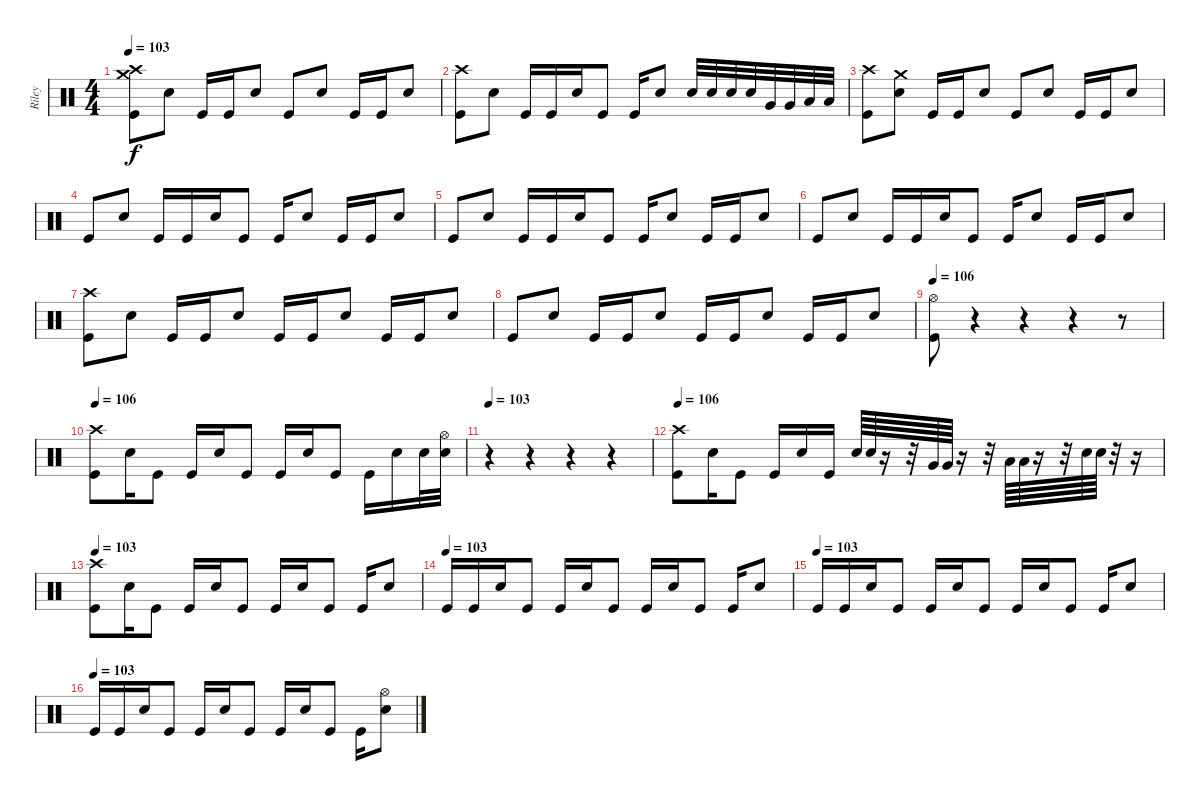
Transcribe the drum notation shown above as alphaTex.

\track ("Riley" "Riley") {instrument percussion}
\staff {score}
\articulation defaults
\ts (4 4)
\tempo 103
\clef neutral
\ks c
("Crash high (hit)" "Crash medium (hit)" "Kick (hit)").8{dy f} "Electric Snare (hit)".8 "Kick (hit)".16 "Kick (hit)".16 "Electric Snare (hit)".8 "Kick (hit)".8 "Electric Snare (hit)".8 "Kick (hit)".16 "Kick (hit)".16 "Electric Snare (hit)".8 |
("Crash high (hit)" "Kick (hit)").8 "Electric Snare (hit)".8 "Kick (hit)".16 "Kick (hit)".16 "Electric Snare (hit)".16 "Kick (hit)".8 "Kick (hit)".16 "Electric Snare (hit)".8 "Electric Snare (hit)".32 "Electric Snare (hit)".32 "Electric Snare (hit)".32 "Electric Snare (hit)".32 "Very Low Tom (hit)".32 "Very Low Tom (hit)".32 "Low Floor Tom (hit)".32 "Low Floor Tom (hit)".32 |
("Crash high (hit)" "Kick (hit)").8 ("Crash medium (hit)" "Electric Snare (hit)").8 "Kick (hit)".16 "Kick (hit)".16 "Electric Snare (hit)".8 "Kick (hit)".8 "Electric Snare (hit)".8 "Kick (hit)".16 "Kick (hit)".16 "Electric Snare (hit)".8 |
"Kick (hit)".8 "Electric Snare (hit)".8 "Kick (hit)".16 "Kick (hit)".16 "Electric Snare (hit)".16 "Kick (hit)".8 "Kick (hit)".16 "Electric Snare (hit)".8 "Kick (hit)".16 "Kick (hit)".16 "Electric Snare (hit)".8 |
"Kick (hit)".8 "Electric Snare (hit)".8 "Kick (hit)".16 "Kick (hit)".16 "Electric Snare (hit)".16 "Kick (hit)".8 "Kick (hit)".16 "Electric Snare (hit)".8 "Kick (hit)".16 "Kick (hit)".16 "Electric Snare (hit)".8 |
"Kick (hit)".8 "Electric Snare (hit)".8 "Kick (hit)".16 "Kick (hit)".16 "Electric Snare (hit)".16 "Kick (hit)".8 "Kick (hit)".16 "Electric Snare (hit)".8 "Kick (hit)".16 "Kick (hit)".16 "Electric Snare (hit)".8 |
("Crash high (hit)" "Kick (hit)").8 "Electric Snare (hit)".8 "Kick (hit)".16 "Kick (hit)".16 "Electric Snare (hit)".8 "Kick (hit)".16 "Kick (hit)".16 "Electric Snare (hit)".8 "Kick (hit)".16 "Kick (hit)".16 "Electric Snare (hit)".8 |
"Kick (hit)".8 "Electric Snare (hit)".8 "Kick (hit)".16 "Kick (hit)".16 "Electric Snare (hit)".8 "Kick (hit)".16 "Kick (hit)".16 "Electric Snare (hit)".8 "Kick (hit)".16 "Kick (hit)".16 "Electric Snare (hit)".8 |
\tempo 106
("Hi-Hat (open)" "Kick (hit)").8 r.4 r.4 r.4 r.8 |
\tempo 106
("Crash high (hit)" "Kick (hit)").8 "Electric Snare (hit)".16 "Kick (hit)".8 "Kick (hit)".16 "Electric Snare (hit)".16 "Kick (hit)".8 "Kick (hit)".16 "Electric Snare (hit)".16 "Kick (hit)".8 "Kick (hit)".16 "Electric Snare (hit)".16 "Electric Snare (hit)".32 ("Electric Snare (hit)" "Hi-Hat (open)").32 |
\tempo 103
r.4 r.4 r.4 r.4 |
\tempo 106
("Crash high (hit)" "Kick (hit)").8 "Electric Snare (hit)".16 "Kick (hit)".8 "Kick (hit)".16 "Electric Snare (hit)".16 "Kick (hit)".16 "Electric Snare (hit)".64 "Electric Snare (hit)".64 r.16 r.32 "Very Low Tom (hit)".64 "Very Low Tom (hit)".64 r.16 r.32 "Low Floor Tom (hit)".64 "Low Floor Tom (hit)".64 r.16 r.32 "Electric Snare (hit)".64 "Electric Snare (hit)".64 r.32 r.16 |
\tempo 103
("Crash high (hit)" "Kick (hit)").8 "Electric Snare (hit)".16 "Kick (hit)".8 "Kick (hit)".16 "Electric Snare (hit)".16 "Kick (hit)".8 "Kick (hit)".16 "Electric Snare (hit)".16 "Kick (hit)".8 "Kick (hit)".16 "Electric Snare (hit)".8 |
\tempo (103)
"Kick (hit)".16 "Kick (hit)".16 "Electric Snare (hit)".16 "Kick (hit)".8 "Kick (hit)".16 "Electric Snare (hit)".16 "Kick (hit)".8 "Kick (hit)".16 "Electric Snare (hit)".16 "Kick (hit)".8 "Kick (hit)".16 "Electric Snare (hit)".8 |
\tempo (103)
"Kick (hit)".16 "Kick (hit)".16 "Electric Snare (hit)".16 "Kick (hit)".8 "Kick (hit)".16 "Electric Snare (hit)".16 "Kick (hit)".8 "Kick (hit)".16 "Electric Snare (hit)".16 "Kick (hit)".8 "Kick (hit)".16 "Electric Snare (hit)".8 |
\tempo (103)
"Kick (hit)".16 "Kick (hit)".16 "Electric Snare (hit)".16 "Kick (hit)".8 "Kick (hit)".16 "Electric Snare (hit)".16 "Kick (hit)".8 "Kick (hit)".16 "Electric Snare (hit)".16 "Kick (hit)".8 "Kick (hit)".16 ("Electric Snare (hit)" "Hi-Hat (open)").8
